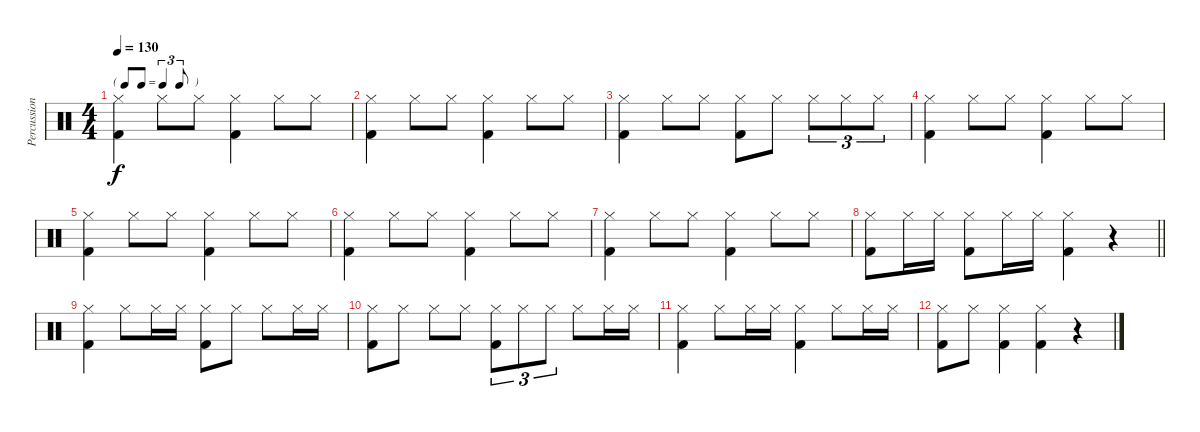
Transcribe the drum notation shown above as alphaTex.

\track ("Percussion" "Percussion") {instrument percussion}
\staff {score}
\articulation defaults
\ts (4 4)
\tf triplet8th
\tempo 130
\clef neutral
\ks c
("Hi-Hat (closed)" "Kick (hit) 2").4{dy f} "Hi-Hat (closed)".8 "Hi-Hat (closed)".8 ("Hi-Hat (closed)" "Kick (hit) 2").4 "Hi-Hat (closed)".8 "Hi-Hat (closed)".8 |
("Hi-Hat (closed)" "Kick (hit) 2").4 "Hi-Hat (closed)".8 "Hi-Hat (closed)".8 ("Hi-Hat (closed)" "Kick (hit) 2").4 "Hi-Hat (closed)".8 "Hi-Hat (closed)".8 |
("Hi-Hat (closed)" "Kick (hit) 2").4 "Hi-Hat (closed)".8 "Hi-Hat (closed)".8 ("Hi-Hat (closed)" "Kick (hit) 2").8 "Hi-Hat (closed)".8 "Hi-Hat (closed)".8{tu (3 2)} "Hi-Hat (closed)".8{tu (3 2)} "Hi-Hat (closed)".8{tu (3 2)} |
("Hi-Hat (closed)" "Kick (hit) 2").4 "Hi-Hat (closed)".8 "Hi-Hat (closed)".8 ("Hi-Hat (closed)" "Kick (hit) 2").4 "Hi-Hat (closed)".8 "Hi-Hat (closed)".8 |
("Hi-Hat (closed)" "Kick (hit) 2").4 "Hi-Hat (closed)".8 "Hi-Hat (closed)".8 ("Hi-Hat (closed)" "Kick (hit) 2").4 "Hi-Hat (closed)".8 "Hi-Hat (closed)".8 |
("Hi-Hat (closed)" "Kick (hit) 2").4 "Hi-Hat (closed)".8 "Hi-Hat (closed)".8 ("Hi-Hat (closed)" "Kick (hit) 2").4 "Hi-Hat (closed)".8 "Hi-Hat (closed)".8 |
("Hi-Hat (closed)" "Kick (hit) 2").4 "Hi-Hat (closed)".8 "Hi-Hat (closed)".8 ("Hi-Hat (closed)" "Kick (hit) 2").4 "Hi-Hat (closed)".8 "Hi-Hat (closed)".8 |
\barLineRight lightlight
("Hi-Hat (closed)" "Kick (hit) 2").8 "Hi-Hat (closed)".16 "Hi-Hat (closed)".16 ("Hi-Hat (closed)" "Kick (hit) 2").8 "Hi-Hat (closed)".16 "Hi-Hat (closed)".16 ("Hi-Hat (closed)" "Kick (hit) 2").4 r.4 |
("Hi-Hat (closed)" "Kick (hit) 2").4 "Hi-Hat (closed)".8 "Hi-Hat (closed)".16 "Hi-Hat (closed)".16 ("Hi-Hat (closed)" "Kick (hit) 2").8 "Hi-Hat (closed)".8 "Hi-Hat (closed)".8 "Hi-Hat (closed)".16 "Hi-Hat (closed)".16 |
("Hi-Hat (closed)" "Kick (hit) 2").8 "Hi-Hat (closed)".8 "Hi-Hat (closed)".8 "Hi-Hat (closed)".8 ("Hi-Hat (closed)" "Kick (hit) 2").8{tu (3 2)} "Hi-Hat (closed)".8{tu (3 2)} "Hi-Hat (closed)".8{tu (3 2)} "Hi-Hat (closed)".8 "Hi-Hat (closed)".16 "Hi-Hat (closed)".16 |
("Hi-Hat (closed)" "Kick (hit) 2").4 "Hi-Hat (closed)".8 "Hi-Hat (closed)".16 "Hi-Hat (closed)".16 ("Hi-Hat (closed)" "Kick (hit) 2").4 "Hi-Hat (closed)".8 "Hi-Hat (closed)".16 "Hi-Hat (closed)".16 |
("Hi-Hat (closed)" "Kick (hit) 2").8 "Hi-Hat (closed)".8 ("Hi-Hat (closed)" "Kick (hit) 2").4 ("Hi-Hat (closed)" "Kick (hit) 2").4 r.4
